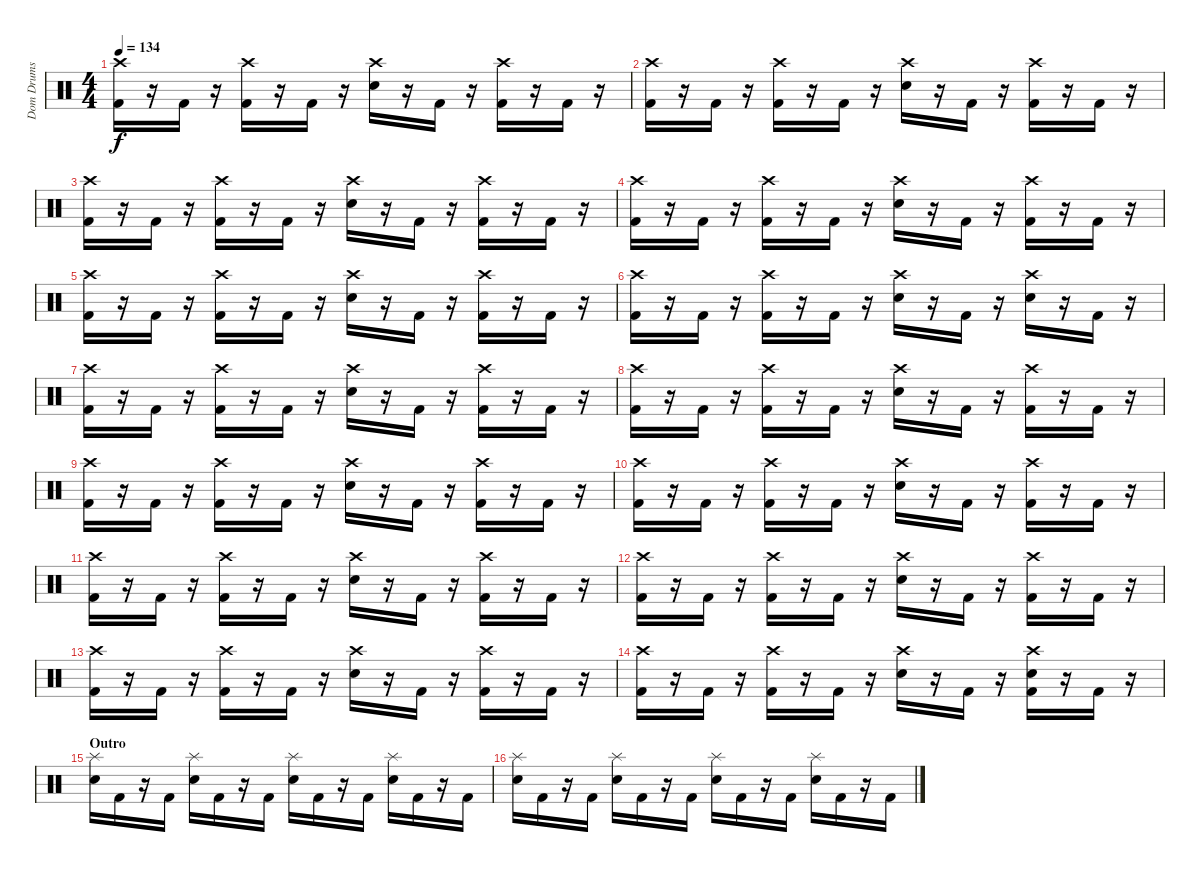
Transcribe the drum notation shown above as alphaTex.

\track ("Dom Drums" "Dom Drums") {instrument percussion}
\staff {score}
\articulation defaults
\ts (4 4)
\tempo 134
\clef neutral
\ks c
("Crash high (hit)" "Kick (hit) 2").16{dy f} r.16 "Kick (hit) 2".16 r.16 ("Crash high (hit)" "Kick (hit) 2").16 r.16 "Kick (hit) 2".16 r.16 ("Crash high (hit)" "Electric Snare (hit)").16 r.16 "Kick (hit) 2".16 r.16 ("Crash high (hit)" "Kick (hit) 2").16 r.16 "Kick (hit) 2".16 r.16 |
("Crash high (hit)" "Kick (hit) 2").16 r.16 "Kick (hit) 2".16 r.16 ("Crash high (hit)" "Kick (hit) 2").16 r.16 "Kick (hit) 2".16 r.16 ("Crash high (hit)" "Electric Snare (hit)").16 r.16 "Kick (hit) 2".16 r.16 ("Crash high (hit)" "Kick (hit) 2").16 r.16 "Kick (hit) 2".16 r.16 |
("Crash high (hit)" "Kick (hit) 2").16 r.16 "Kick (hit) 2".16 r.16 ("Crash high (hit)" "Kick (hit) 2").16 r.16 "Kick (hit) 2".16 r.16 ("Crash high (hit)" "Electric Snare (hit)").16 r.16 "Kick (hit) 2".16 r.16 ("Crash high (hit)" "Kick (hit) 2").16 r.16 "Kick (hit) 2".16 r.16 |
("Crash high (hit)" "Kick (hit) 2").16 r.16 "Kick (hit) 2".16 r.16 ("Crash high (hit)" "Kick (hit) 2").16 r.16 "Kick (hit) 2".16 r.16 ("Crash high (hit)" "Electric Snare (hit)").16 r.16 "Kick (hit) 2".16 r.16 ("Crash high (hit)" "Kick (hit) 2").16 r.16 "Kick (hit) 2".16 r.16 |
("Crash high (hit)" "Kick (hit) 2").16 r.16 "Kick (hit) 2".16 r.16 ("Crash high (hit)" "Kick (hit) 2").16 r.16 "Kick (hit) 2".16 r.16 ("Crash high (hit)" "Electric Snare (hit)").16 r.16 "Kick (hit) 2".16 r.16 ("Crash high (hit)" "Kick (hit) 2").16 r.16 "Kick (hit) 2".16 r.16 |
("Crash high (hit)" "Kick (hit) 2").16 r.16 "Kick (hit) 2".16 r.16 ("Crash high (hit)" "Kick (hit) 2").16 r.16 "Kick (hit) 2".16 r.16 ("Crash high (hit)" "Electric Snare (hit)").16 r.16 "Kick (hit) 2".16 r.16 ("Crash high (hit)" "Electric Snare (hit)").16 r.16 "Kick (hit) 2".16 r.16 |
("Crash high (hit)" "Kick (hit) 2").16 r.16 "Kick (hit) 2".16 r.16 ("Crash high (hit)" "Kick (hit) 2").16 r.16 "Kick (hit) 2".16 r.16 ("Crash high (hit)" "Electric Snare (hit)").16 r.16 "Kick (hit) 2".16 r.16 ("Crash high (hit)" "Kick (hit) 2").16 r.16 "Kick (hit) 2".16 r.16 |
("Crash high (hit)" "Kick (hit) 2").16 r.16 "Kick (hit) 2".16 r.16 ("Crash high (hit)" "Kick (hit) 2").16 r.16 "Kick (hit) 2".16 r.16 ("Crash high (hit)" "Electric Snare (hit)").16 r.16 "Kick (hit) 2".16 r.16 ("Crash high (hit)" "Kick (hit) 2").16 r.16 "Kick (hit) 2".16 r.16 |
("Crash high (hit)" "Kick (hit) 2").16 r.16 "Kick (hit) 2".16 r.16 ("Crash high (hit)" "Kick (hit) 2").16 r.16 "Kick (hit) 2".16 r.16 ("Crash high (hit)" "Electric Snare (hit)").16 r.16 "Kick (hit) 2".16 r.16 ("Crash high (hit)" "Kick (hit) 2").16 r.16 "Kick (hit) 2".16 r.16 |
("Crash high (hit)" "Kick (hit) 2").16 r.16 "Kick (hit) 2".16 r.16 ("Crash high (hit)" "Kick (hit) 2").16 r.16 "Kick (hit) 2".16 r.16 ("Crash high (hit)" "Electric Snare (hit)").16 r.16 "Kick (hit) 2".16 r.16 ("Crash high (hit)" "Kick (hit) 2").16 r.16 "Kick (hit) 2".16 r.16 |
("Crash high (hit)" "Kick (hit) 2").16 r.16 "Kick (hit) 2".16 r.16 ("Crash high (hit)" "Kick (hit) 2").16 r.16 "Kick (hit) 2".16 r.16 ("Crash high (hit)" "Electric Snare (hit)").16 r.16 "Kick (hit) 2".16 r.16 ("Crash high (hit)" "Kick (hit) 2").16 r.16 "Kick (hit) 2".16 r.16 |
("Crash high (hit)" "Kick (hit) 2").16 r.16 "Kick (hit) 2".16 r.16 ("Crash high (hit)" "Kick (hit) 2").16 r.16 "Kick (hit) 2".16 r.16 ("Crash high (hit)" "Electric Snare (hit)").16 r.16 "Kick (hit) 2".16 r.16 ("Crash high (hit)" "Kick (hit) 2").16 r.16 "Kick (hit) 2".16 r.16 |
("Crash high (hit)" "Kick (hit) 2").16 r.16 "Kick (hit) 2".16 r.16 ("Crash high (hit)" "Kick (hit) 2").16 r.16 "Kick (hit) 2".16 r.16 ("Crash high (hit)" "Electric Snare (hit)").16 r.16 "Kick (hit) 2".16 r.16 ("Crash high (hit)" "Kick (hit) 2").16 r.16 "Kick (hit) 2".16 r.16 |
("Crash high (hit)" "Kick (hit) 2").16 r.16 "Kick (hit) 2".16 r.16 ("Crash high (hit)" "Kick (hit) 2").16 r.16 "Kick (hit) 2".16 r.16 ("Crash high (hit)" "Electric Snare (hit)").16 r.16 "Kick (hit) 2".16 r.16 ("Crash high (hit)" "Electric Snare (hit)" "Kick (hit) 2").16 r.16 "Kick (hit) 2".16 r.16 |
\section ("" "Outro")
("Splash (hit)" "Electric Snare (hit)").16 "Kick (hit) 2".16 r.16 "Kick (hit) 2".16 ("Splash (hit)" "Electric Snare (hit)").16 "Kick (hit) 2".16 r.16 "Kick (hit) 2".16 ("Splash (hit)" "Electric Snare (hit)").16 "Kick (hit) 2".16 r.16 "Kick (hit) 2".16 ("Splash (hit)" "Electric Snare (hit)").16 "Kick (hit) 2".16 r.16 "Kick (hit) 2".16 |
("Splash (hit)" "Electric Snare (hit)").16 "Kick (hit) 2".16 r.16 "Kick (hit) 2".16 ("Splash (hit)" "Electric Snare (hit)").16 "Kick (hit) 2".16 r.16 "Kick (hit) 2".16 ("Splash (hit)" "Electric Snare (hit)").16 "Kick (hit) 2".16 r.16 "Kick (hit) 2".16 ("Splash (hit)" "Electric Snare (hit)").16 "Kick (hit) 2".16 r.16 "Kick (hit) 2".16
